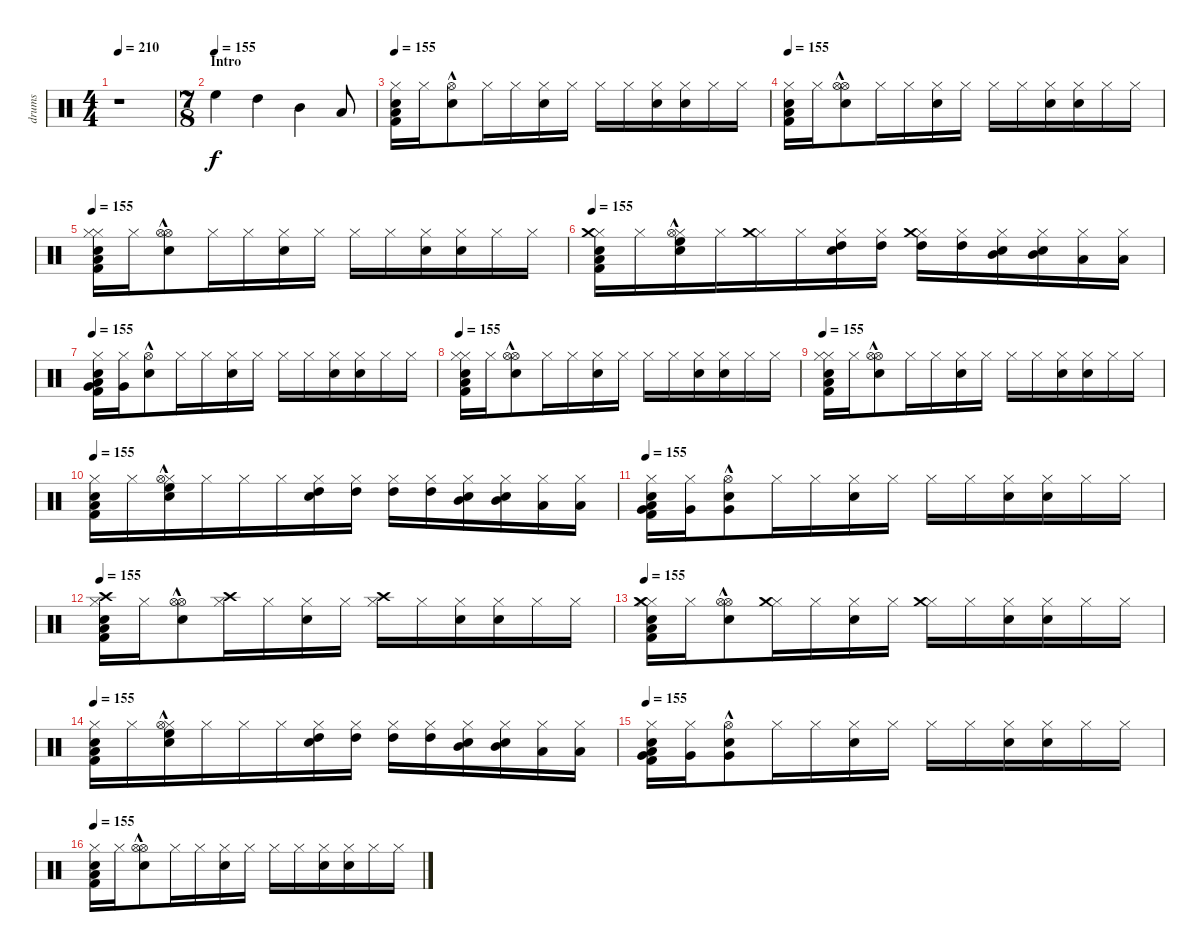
\track ("drums" "drums") {instrument percussion}
\staff {score}
\articulation defaults
\ts (4 4)
\tempo 210
\tempo 155
\tempo 210
\clef neutral
\ks c
r.1{dy f} |
\ts (7 8)
\section ("" "Intro")
\tempo (155)
"High Floor Tom (hit)".4 "High Tom (hit)".4 "Mid Tom (hit)".4 "Low Tom (hit)".8 |
\tempo 155
("Hi-Hat (closed)" "Kick (hit) 2" "Electric Snare (hit)" "Low Floor Tom (hit)").16 "Hi-Hat (closed)".16 ("Electric Snare (hit)" "Hi-Hat (open)"{hac}).8 "Hi-Hat (closed)".16 "Hi-Hat (closed)".16 ("Hi-Hat (closed)" "Electric Snare (hit)").16 "Hi-Hat (closed)".16 "Hi-Hat (closed)".16 "Hi-Hat (closed)".16 ("Hi-Hat (closed)" "Electric Snare (hit)").16 ("Hi-Hat (closed)" "Electric Snare (hit)").16 "Hi-Hat (closed)".16 "Hi-Hat (closed)".16 |
\tempo 155
("Hi-Hat (closed)" "Electric Snare (hit)" "Kick (hit) 2" "Low Floor Tom (hit)").16 "Hi-Hat (closed)".16 ("Electric Snare (hit)" "Hi-Hat (open)"{hac} "Hi-Hat (open)"{hac}).8 "Hi-Hat (closed)".16 "Hi-Hat (closed)".16 ("Hi-Hat (closed)" "Electric Snare (hit)").16 "Hi-Hat (closed)".16 "Hi-Hat (closed)".16 "Hi-Hat (closed)".16 ("Hi-Hat (closed)" "Electric Snare (hit)").16 ("Hi-Hat (closed)" "Electric Snare (hit)").16 "Hi-Hat (closed)".16 "Hi-Hat (closed)".16 |
\tempo 155
("Hi-Hat (closed)" "Electric Snare (hit)" "Kick (hit) 2" "Hi-Hat (closed)" "Low Floor Tom (hit)").16 "Hi-Hat (closed)".16 ("Electric Snare (hit)" "Hi-Hat (open)"{hac} "Hi-Hat (open)"{hac}).8 "Hi-Hat (closed)".16 "Hi-Hat (closed)".16 ("Hi-Hat (closed)" "Electric Snare (hit)").16 "Hi-Hat (closed)".16 "Hi-Hat (closed)".16 "Hi-Hat (closed)".16 ("Hi-Hat (closed)" "Electric Snare (hit)").16 ("Hi-Hat (closed)" "Electric Snare (hit)").16 "Hi-Hat (closed)".16 "Hi-Hat (closed)".16 |
\tempo 155
("Hi-Hat (closed)" "Electric Snare (hit)" "Kick (hit) 2" "Low Floor Tom (hit)" "Crash medium (hit)").16 "Hi-Hat (closed)".16 ("Hi-Hat (closed)" "Electric Snare (hit)" "Hi-Hat (open)"{hac} "High Floor Tom (hit)").16 "Hi-Hat (closed)".16 ("Hi-Hat (closed)" "Crash medium (hit)").16 "Hi-Hat (closed)".16 ("Hi-Hat (closed)" "High Tom (hit)" "Electric Snare (hit)").16 ("Hi-Hat (closed)" "High Tom (hit)").16 ("Hi-Hat (closed)" "High Tom (hit)" "Crash medium (hit)").16 ("Hi-Hat (closed)" "High Tom (hit)").16 ("Hi-Hat (closed)" "Mid Tom (hit)" "Electric Snare (hit)").16 ("Hi-Hat (closed)" "Mid Tom (hit)" "Electric Snare (hit)").16 ("Hi-Hat (closed)" "Low Tom (hit)").16 ("Hi-Hat (closed)" "Low Tom (hit)").16 |
\tempo 155
("Electric Snare (hit)" "Kick (hit) 2" "Hi-Hat (closed)" "Low Floor Tom (hit)" "Very Low Tom (hit)").16 ("Hi-Hat (closed)" "Very Low Tom (hit)").16 ("Electric Snare (hit)" "Hi-Hat (open)"{hac}).8 "Hi-Hat (closed)".16 "Hi-Hat (closed)".16 ("Hi-Hat (closed)" "Electric Snare (hit)").16 "Hi-Hat (closed)".16 "Hi-Hat (closed)".16 "Hi-Hat (closed)".16 ("Hi-Hat (closed)" "Electric Snare (hit)").16 ("Hi-Hat (closed)" "Electric Snare (hit)").16 "Hi-Hat (closed)".16 "Hi-Hat (closed)".16 |
\tempo 155
("Hi-Hat (closed)" "Electric Snare (hit)" "Kick (hit) 2" "Hi-Hat (closed)" "Low Floor Tom (hit)").16 "Hi-Hat (closed)".16 ("Electric Snare (hit)" "Hi-Hat (open)"{hac} "Hi-Hat (open)"{hac}).8 "Hi-Hat (closed)".16 "Hi-Hat (closed)".16 ("Hi-Hat (closed)" "Electric Snare (hit)").16 "Hi-Hat (closed)".16 "Hi-Hat (closed)".16 "Hi-Hat (closed)".16 ("Hi-Hat (closed)" "Electric Snare (hit)").16 ("Hi-Hat (closed)" "Electric Snare (hit)").16 "Hi-Hat (closed)".16 "Hi-Hat (closed)".16 |
\tempo 155
("Hi-Hat (closed)" "Electric Snare (hit)" "Kick (hit) 2" "Hi-Hat (closed)" "Low Floor Tom (hit)").16 "Hi-Hat (closed)".16 ("Electric Snare (hit)" "Hi-Hat (open)"{hac} "Hi-Hat (open)"{hac}).8 "Hi-Hat (closed)".16 "Hi-Hat (closed)".16 ("Hi-Hat (closed)" "Electric Snare (hit)").16 "Hi-Hat (closed)".16 "Hi-Hat (closed)".16 "Hi-Hat (closed)".16 ("Hi-Hat (closed)" "Electric Snare (hit)").16 ("Hi-Hat (closed)" "Electric Snare (hit)").16 "Hi-Hat (closed)".16 "Hi-Hat (closed)".16 |
\tempo 155
("Hi-Hat (closed)" "Electric Snare (hit)" "Kick (hit) 2" "Low Floor Tom (hit)").16 "Hi-Hat (closed)".16 ("Hi-Hat (closed)" "Electric Snare (hit)" "Hi-Hat (open)"{hac} "High Floor Tom (hit)").16 "Hi-Hat (closed)".16 "Hi-Hat (closed)".16 "Hi-Hat (closed)".16 ("Hi-Hat (closed)" "High Tom (hit)" "Electric Snare (hit)").16 ("Hi-Hat (closed)" "High Tom (hit)").16 ("Hi-Hat (closed)" "High Tom (hit)").16 ("Hi-Hat (closed)" "High Tom (hit)").16 ("Hi-Hat (closed)" "Mid Tom (hit)" "Electric Snare (hit)").16 ("Hi-Hat (closed)" "Mid Tom (hit)" "Electric Snare (hit)").16 ("Hi-Hat (closed)" "Low Tom (hit)").16 ("Hi-Hat (closed)" "Low Tom (hit)").16 |
\tempo 155
("Electric Snare (hit)" "Kick (hit) 2" "Hi-Hat (closed)" "Low Floor Tom (hit)" "Very Low Tom (hit)").16 ("Hi-Hat (closed)" "Very Low Tom (hit)").16 ("Electric Snare (hit)" "Very Low Tom (hit)" "Hi-Hat (open)"{hac}).8 "Hi-Hat (closed)".16 "Hi-Hat (closed)".16 ("Hi-Hat (closed)" "Electric Snare (hit)").16 "Hi-Hat (closed)".16 "Hi-Hat (closed)".16 "Hi-Hat (closed)".16 ("Hi-Hat (closed)" "Electric Snare (hit)").16 ("Hi-Hat (closed)" "Electric Snare (hit)").16 "Hi-Hat (closed)".16 "Hi-Hat (closed)".16 |
\tempo 155
("Hi-Hat (closed)" "Electric Snare (hit)" "Kick (hit) 2" "Low Floor Tom (hit)" "Crash high (hit)").16 "Hi-Hat (closed)".16 ("Electric Snare (hit)" "Hi-Hat (open)"{hac} "Hi-Hat (open)"{hac}).8 ("Hi-Hat (closed)" "Crash high (hit)").16 "Hi-Hat (closed)".16 ("Hi-Hat (closed)" "Electric Snare (hit)").16 "Hi-Hat (closed)".16 ("Hi-Hat (closed)" "Crash high (hit)").16 "Hi-Hat (closed)".16 ("Hi-Hat (closed)" "Electric Snare (hit)").16 ("Hi-Hat (closed)" "Electric Snare (hit)").16 "Hi-Hat (closed)".16 "Hi-Hat (closed)".16 |
\tempo 155
("Hi-Hat (closed)" "Electric Snare (hit)" "Kick (hit) 2" "Hi-Hat (closed)" "Low Floor Tom (hit)" "Crash medium (hit)").16 "Hi-Hat (closed)".16 ("Electric Snare (hit)" "Hi-Hat (open)"{hac} "Hi-Hat (open)"{hac}).8 ("Hi-Hat (closed)" "Crash medium (hit)").16 "Hi-Hat (closed)".16 ("Hi-Hat (closed)" "Electric Snare (hit)").16 "Hi-Hat (closed)".16 ("Hi-Hat (closed)" "Crash medium (hit)").16 "Hi-Hat (closed)".16 ("Hi-Hat (closed)" "Electric Snare (hit)").16 ("Hi-Hat (closed)" "Electric Snare (hit)").16 "Hi-Hat (closed)".16 "Hi-Hat (closed)".16 |
\tempo 155
("Hi-Hat (closed)" "Electric Snare (hit)" "Kick (hit) 2" "Low Floor Tom (hit)").16 "Hi-Hat (closed)".16 ("Hi-Hat (closed)" "Electric Snare (hit)" "Hi-Hat (open)"{hac} "High Floor Tom (hit)").16 "Hi-Hat (closed)".16 "Hi-Hat (closed)".16 "Hi-Hat (closed)".16 ("Hi-Hat (closed)" "High Tom (hit)" "Electric Snare (hit)").16 ("Hi-Hat (closed)" "High Tom (hit)").16 ("Hi-Hat (closed)" "High Tom (hit)").16 ("Hi-Hat (closed)" "High Tom (hit)").16 ("Hi-Hat (closed)" "Mid Tom (hit)" "Electric Snare (hit)").16 ("Hi-Hat (closed)" "Mid Tom (hit)" "Electric Snare (hit)").16 ("Hi-Hat (closed)" "Low Tom (hit)").16 ("Hi-Hat (closed)" "Low Tom (hit)").16 |
\tempo 155
("Electric Snare (hit)" "Kick (hit) 2" "Hi-Hat (closed)" "Low Floor Tom (hit)" "Very Low Tom (hit)").16 ("Hi-Hat (closed)" "Very Low Tom (hit)").16 ("Electric Snare (hit)" "Very Low Tom (hit)" "Hi-Hat (open)"{hac}).8 "Hi-Hat (closed)".16 "Hi-Hat (closed)".16 ("Hi-Hat (closed)" "Electric Snare (hit)").16 "Hi-Hat (closed)".16 "Hi-Hat (closed)".16 "Hi-Hat (closed)".16 ("Hi-Hat (closed)" "Electric Snare (hit)").16 ("Hi-Hat (closed)" "Electric Snare (hit)").16 "Hi-Hat (closed)".16 "Hi-Hat (closed)".16 |
\tempo 155
("Hi-Hat (closed)" "Electric Snare (hit)" "Kick (hit) 2" "Low Floor Tom (hit)").16 "Hi-Hat (closed)".16 ("Electric Snare (hit)" "Hi-Hat (open)"{hac} "Hi-Hat (open)"{hac}).8 "Hi-Hat (closed)".16 "Hi-Hat (closed)".16 ("Hi-Hat (closed)" "Electric Snare (hit)").16 "Hi-Hat (closed)".16 "Hi-Hat (closed)".16 "Hi-Hat (closed)".16 ("Hi-Hat (closed)" "Electric Snare (hit)").16 ("Hi-Hat (closed)" "Electric Snare (hit)").16 "Hi-Hat (closed)".16 "Hi-Hat (closed)".16
